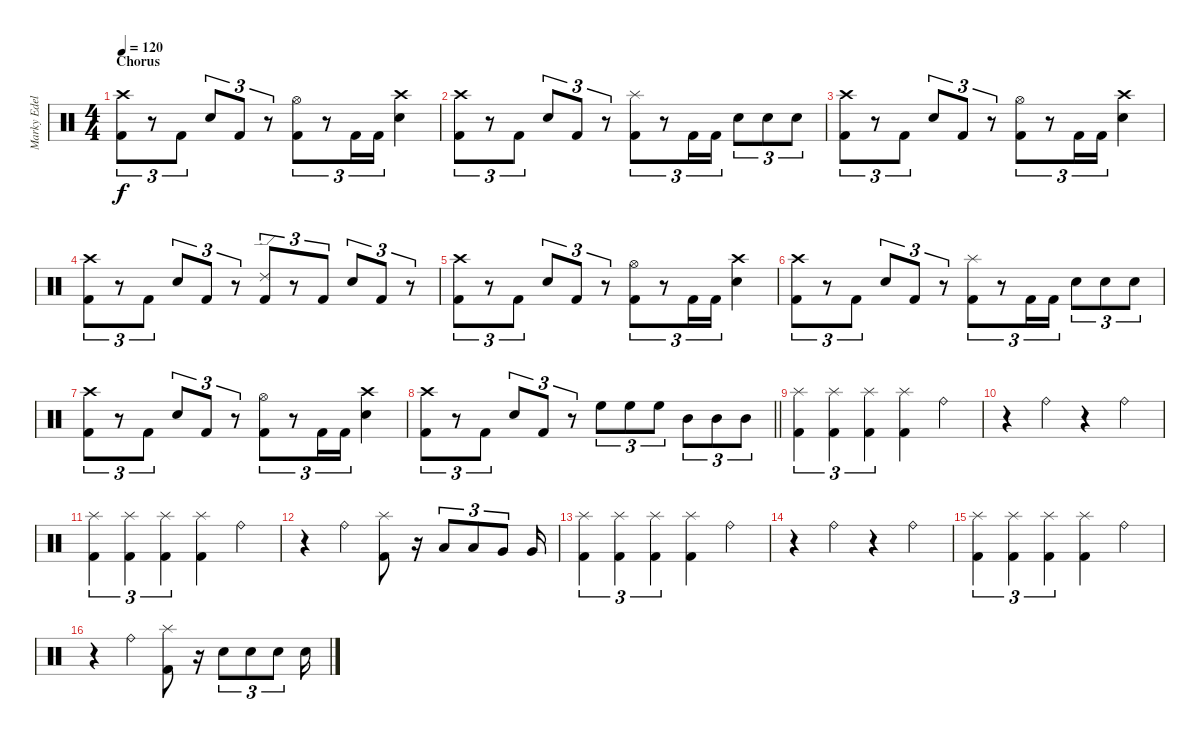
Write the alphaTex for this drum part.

\track ("Marky Edelmann" "Marky Edel") {instrument percussion}
\staff {score}
\articulation defaults
\ts (4 4)
\section ("" "Chorus")
\tempo 120
\clef neutral
\ks c
("Crash high (hit)" "Kick (hit) 2").8{tu (3 2) dy f} r.8{tu (3 2)} "Kick (hit) 2".8{tu (3 2)} "Snare (hit) 2".8{tu (3 2)} "Kick (hit) 2".8{tu (3 2)} r.8{tu (3 2)} ("Hi-Hat (open)" "Kick (hit) 2").8{tu (3 2)} r.8{tu (3 2)} "Kick (hit) 2".16{tu (3 2)} "Kick (hit) 2".16{tu (3 2)} ("Crash high (hit)" "Snare (hit) 2").4 |
("Crash high (hit)" "Kick (hit) 2").8{tu (3 2)} r.8{tu (3 2)} "Kick (hit) 2".8{tu (3 2)} "Snare (hit) 2".8{tu (3 2)} "Kick (hit) 2".8{tu (3 2)} r.8{tu (3 2)} ("Splash (hit)" "Kick (hit) 2").8{tu (3 2)} r.8{tu (3 2)} "Kick (hit) 2".16{tu (3 2)} "Kick (hit) 2".16{tu (3 2)} "Snare (hit) 2".8{tu (3 2)} "Snare (hit) 2".8{tu (3 2)} "Snare (hit) 2".8{tu (3 2)} |
("Crash high (hit)" "Kick (hit) 2").8{tu (3 2)} r.8{tu (3 2)} "Kick (hit) 2".8{tu (3 2)} "Snare (hit) 2".8{tu (3 2)} "Kick (hit) 2".8{tu (3 2)} r.8{tu (3 2)} ("Hi-Hat (open)" "Kick (hit) 2").8{tu (3 2)} r.8{tu (3 2)} "Kick (hit) 2".16{tu (3 2)} "Kick (hit) 2".16{tu (3 2)} ("Crash high (hit)" "Snare (hit) 2").4 |
("Crash high (hit)" "Kick (hit) 2").8{tu (3 2)} r.8{tu (3 2)} "Kick (hit) 2".8{tu (3 2)} "Snare (hit) 2".8{tu (3 2)} "Kick (hit) 2".8{tu (3 2)} r.8{tu (3 2)} ("Ride (edge) 2" "Kick (hit) 2").8{tu (3 2)} r.8{tu (3 2)} "Kick (hit) 2".8{tu (3 2)} "Snare (hit) 2".8{tu (3 2)} "Kick (hit) 2".8{tu (3 2)} r.8{tu (3 2)} |
("Crash high (hit)" "Kick (hit) 2").8{tu (3 2)} r.8{tu (3 2)} "Kick (hit) 2".8{tu (3 2)} "Snare (hit) 2".8{tu (3 2)} "Kick (hit) 2".8{tu (3 2)} r.8{tu (3 2)} ("Hi-Hat (open)" "Kick (hit) 2").8{tu (3 2)} r.8{tu (3 2)} "Kick (hit) 2".16{tu (3 2)} "Kick (hit) 2".16{tu (3 2)} ("Crash high (hit)" "Snare (hit) 2").4 |
("Crash high (hit)" "Kick (hit) 2").8{tu (3 2)} r.8{tu (3 2)} "Kick (hit) 2".8{tu (3 2)} "Snare (hit) 2".8{tu (3 2)} "Kick (hit) 2".8{tu (3 2)} r.8{tu (3 2)} ("Splash (hit)" "Kick (hit) 2").8{tu (3 2)} r.8{tu (3 2)} "Kick (hit) 2".16{tu (3 2)} "Kick (hit) 2".16{tu (3 2)} "Snare (hit) 2".8{tu (3 2)} "Snare (hit) 2".8{tu (3 2)} "Snare (hit) 2".8{tu (3 2)} |
("Crash high (hit)" "Kick (hit) 2").8{tu (3 2)} r.8{tu (3 2)} "Kick (hit) 2".8{tu (3 2)} "Snare (hit) 2".8{tu (3 2)} "Kick (hit) 2".8{tu (3 2)} r.8{tu (3 2)} ("Hi-Hat (open)" "Kick (hit) 2").8{tu (3 2)} r.8{tu (3 2)} "Kick (hit) 2".16{tu (3 2)} "Kick (hit) 2".16{tu (3 2)} ("Crash high (hit)" "Snare (hit) 2").4 |
\barLineRight lightlight
("Crash high (hit)" "Kick (hit) 2").8{tu (3 2)} r.8{tu (3 2)} "Kick (hit) 2".8{tu (3 2)} "Snare (hit) 2".8{tu (3 2)} "Kick (hit) 2".8{tu (3 2)} r.8{tu (3 2)} "High Floor Tom (hit)".8{tu (3 2)} "High Floor Tom (hit)".8{tu (3 2)} "High Floor Tom (hit)".8{tu (3 2)} "Mid Tom (hit)".8{tu (3 2)} "Mid Tom (hit)".8{tu (3 2)} "Mid Tom (hit)".8{tu (3 2)} |
("Splash (hit)" "Kick (hit) 2").4{tu (3 2)} ("Splash (hit)" "Kick (hit) 2").4{tu (3 2)} ("Splash (hit)" "Kick (hit) 2").4{tu (3 2)} ("Splash (hit)" "Kick (hit) 2").4 "Ride (bell)".4 |
r.4 "Ride (bell)".4 r.4 "Ride (bell)".4 |
("Splash (hit)" "Kick (hit) 2").4{tu (3 2)} ("Splash (hit)" "Kick (hit) 2").4{tu (3 2)} ("Splash (hit)" "Kick (hit) 2").4{tu (3 2)} ("Splash (hit)" "Kick (hit) 2").4 "Ride (bell)".4 |
r.4 "Ride (bell)".4 ("Splash (hit)" "Kick (hit) 2").8 r.16 "Low Tom (hit)".8{tu (3 2)} "Low Tom (hit)".8{tu (3 2)} "Very Low Tom (hit)".8{tu (3 2)} "Very Low Tom (hit)".16 |
("Splash (hit)" "Kick (hit) 2").4{tu (3 2)} ("Splash (hit)" "Kick (hit) 2").4{tu (3 2)} ("Splash (hit)" "Kick (hit) 2").4{tu (3 2)} ("Splash (hit)" "Kick (hit) 2").4 "Ride (bell)".4 |
r.4 "Ride (bell)".4 r.4 "Ride (bell)".4 |
("Splash (hit)" "Kick (hit) 2").4{tu (3 2)} ("Splash (hit)" "Kick (hit) 2").4{tu (3 2)} ("Splash (hit)" "Kick (hit) 2").4{tu (3 2)} ("Splash (hit)" "Kick (hit) 2").4 "Ride (bell)".4 |
r.4 "Ride (bell)".4 ("Splash (hit)" "Kick (hit) 2").8 r.16 "Snare (hit) 2".8{tu (3 2)} "Snare (hit) 2".8{tu (3 2)} "Snare (hit) 2".8{tu (3 2)} "Snare (hit) 2".16
